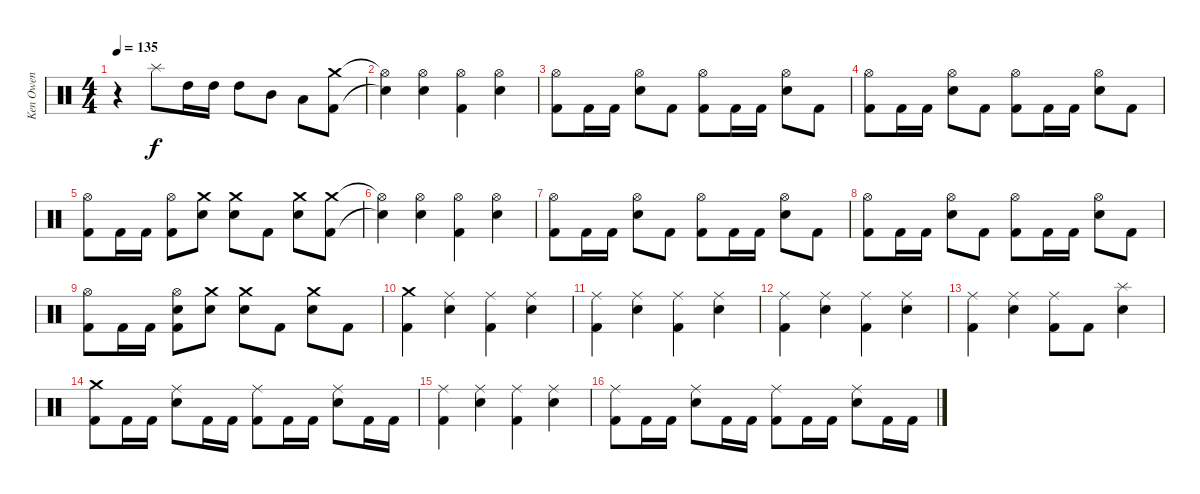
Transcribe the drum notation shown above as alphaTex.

\track ("Ken Owen" "Ken Owen") {instrument percussion}
\staff {score}
\articulation defaults
\ts (4 4)
\tempo 135
\clef neutral
\ks c
r.4{dy f} "Splash (hit)".8 "High Tom (hit)".16 "High Tom (hit)".16 "High Tom (hit)".8 "Mid Tom (hit)".8 "Low Tom (hit)".8 ("Crash medium (hit)" "Kick (hit) 2").8 |
("Hi-Hat (open)"{t} "Snare (hit)"{t}).4 ("Hi-Hat (open)" "Electric Snare (hit)").4 ("Hi-Hat (open)" "Kick (hit) 2").4 ("Hi-Hat (open)" "Electric Snare (hit)").4 |
("Hi-Hat (open)" "Kick (hit) 2").8 "Kick (hit) 2".16 "Kick (hit) 2".16 ("Hi-Hat (open)" "Electric Snare (hit)").8 "Kick (hit) 2".8 ("Hi-Hat (open)" "Kick (hit) 2").8 "Kick (hit) 2".16 "Kick (hit) 2".16 ("Hi-Hat (open)" "Electric Snare (hit)").8 "Kick (hit) 2".8 |
("Hi-Hat (open)" "Kick (hit) 2").8 "Kick (hit) 2".16 "Kick (hit) 2".16 ("Hi-Hat (open)" "Electric Snare (hit)").8 "Kick (hit) 2".8 ("Hi-Hat (open)" "Kick (hit) 2").8 "Kick (hit) 2".16 "Kick (hit) 2".16 ("Hi-Hat (open)" "Electric Snare (hit)").8 "Kick (hit) 2".8 |
("Hi-Hat (open)" "Kick (hit) 2").8 "Kick (hit) 2".16 "Kick (hit) 2".16 ("Hi-Hat (open)" "Kick (hit) 2").8 ("Crash medium (hit)" "Electric Snare (hit)").8 ("Crash medium (hit)" "Electric Snare (hit)").8 "Kick (hit) 2".8 ("Crash medium (hit)" "Electric Snare (hit)").8 ("Crash medium (hit)" "Kick (hit) 2").8 |
("Hi-Hat (open)"{t} "Snare (hit)"{t}).4 ("Hi-Hat (open)" "Electric Snare (hit)").4 ("Hi-Hat (open)" "Kick (hit) 2").4 ("Hi-Hat (open)" "Electric Snare (hit)").4 |
("Hi-Hat (open)" "Kick (hit) 2").8 "Kick (hit) 2".16 "Kick (hit) 2".16 ("Hi-Hat (open)" "Electric Snare (hit)").8 "Kick (hit) 2".8 ("Hi-Hat (open)" "Kick (hit) 2").8 "Kick (hit) 2".16 "Kick (hit) 2".16 ("Hi-Hat (open)" "Electric Snare (hit)").8 "Kick (hit) 2".8 |
("Hi-Hat (open)" "Kick (hit) 2").8 "Kick (hit) 2".16 "Kick (hit) 2".16 ("Hi-Hat (open)" "Electric Snare (hit)").8 "Kick (hit) 2".8 ("Hi-Hat (open)" "Kick (hit) 2").8 "Kick (hit) 2".16 "Kick (hit) 2".16 ("Hi-Hat (open)" "Electric Snare (hit)").8 "Kick (hit) 2".8 |
("Hi-Hat (open)" "Kick (hit) 2").8 "Kick (hit) 2".16 "Kick (hit) 2".16 ("Hi-Hat (open)" "Electric Snare (hit)" "Kick (hit) 2").8 ("Crash medium (hit)" "Electric Snare (hit)").8 ("Crash medium (hit)" "Electric Snare (hit)").8 "Kick (hit) 2".8 ("Crash medium (hit)" "Electric Snare (hit)").8 "Kick (hit) 2".8 |
("Crash medium (hit)" "Kick (hit) 2").4 ("Ride (middle)" "Electric Snare (hit)").4 ("Ride (middle)" "Kick (hit) 2").4 ("Ride (middle)" "Electric Snare (hit)").4 |
("Ride (middle)" "Kick (hit) 2").4 ("Ride (middle)" "Electric Snare (hit)").4 ("Ride (middle)" "Kick (hit) 2").4 ("Ride (middle)" "Electric Snare (hit)").4 |
("Ride (middle)" "Kick (hit) 2").4 ("Ride (middle)" "Electric Snare (hit)").4 ("Ride (middle)" "Kick (hit) 2").4 ("Ride (middle)" "Electric Snare (hit)").4 |
("Ride (middle)" "Kick (hit) 2").4 ("Ride (middle)" "Electric Snare (hit)").4 ("Ride (middle)" "Kick (hit) 2").8 "Kick (hit) 2".8 ("Splash (hit)" "Electric Snare (hit)").4 |
("Crash medium (hit)" "Kick (hit) 2").8 "Kick (hit) 2".16 "Kick (hit) 2".16 ("Ride (middle)" "Electric Snare (hit)").8 "Kick (hit) 2".16 "Kick (hit) 2".16 ("Ride (middle)" "Kick (hit) 2").8 "Kick (hit) 2".16 "Kick (hit) 2".16 ("Ride (middle)" "Electric Snare (hit)").8 "Kick (hit) 2".16 "Kick (hit) 2".16 |
("Ride (middle)" "Kick (hit) 2").4 ("Ride (middle)" "Electric Snare (hit)").4 ("Ride (middle)" "Kick (hit) 2").4 ("Ride (middle)" "Electric Snare (hit)").4 |
("Ride (middle)" "Kick (hit) 2").8 "Kick (hit) 2".16 "Kick (hit) 2".16 ("Ride (middle)" "Electric Snare (hit)").8 "Kick (hit) 2".16 "Kick (hit) 2".16 ("Ride (middle)" "Kick (hit) 2").8 "Kick (hit) 2".16 "Kick (hit) 2".16 ("Ride (middle)" "Electric Snare (hit)").8 "Kick (hit) 2".16 "Kick (hit) 2".16
